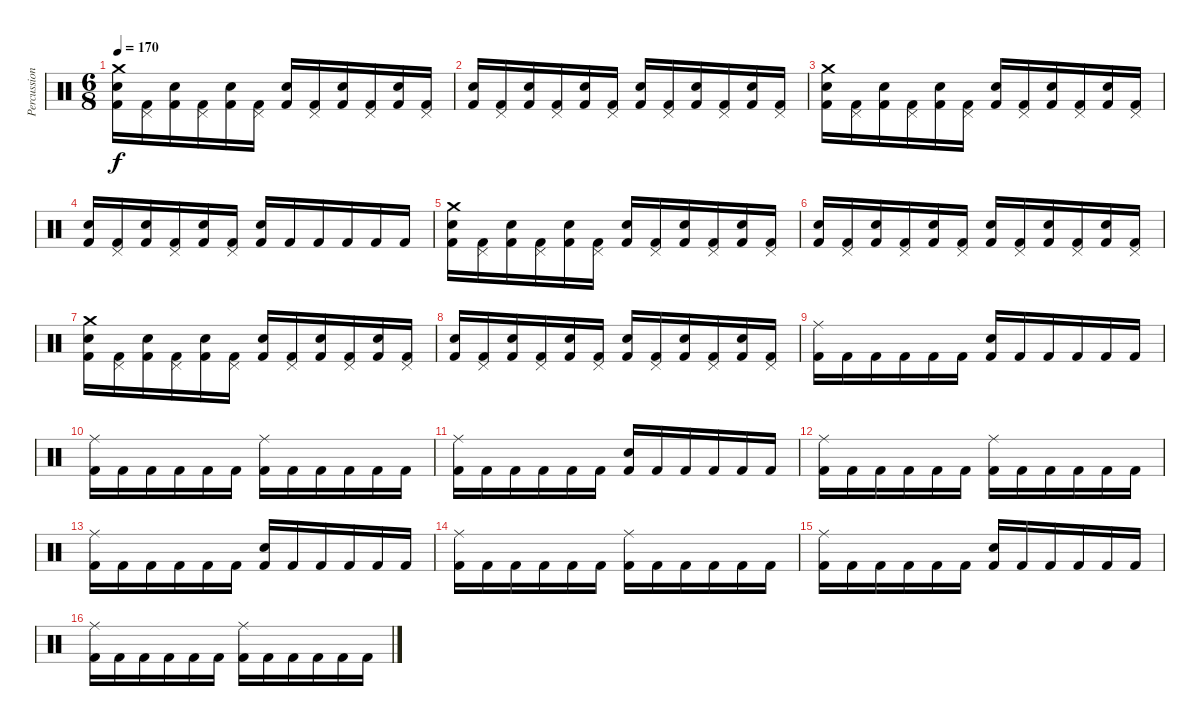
\track ("Percussions" "Percussion") {instrument percussion}
\staff {score}
\articulation defaults
\ts (6 8)
\tempo 170
\clef neutral
\ks c
("Crash medium (hit)" "Snare (hit) 2" "Kick (hit) 2").16{dy f} ("Pedal Hi-Hat (hit)" "Kick (hit) 2").16 ("Snare (hit) 2" "Kick (hit) 2").16 ("Pedal Hi-Hat (hit)" "Kick (hit) 2").16 ("Snare (hit) 2" "Kick (hit) 2").16 ("Pedal Hi-Hat (hit)" "Kick (hit) 2").16 ("Snare (hit) 2" "Kick (hit) 2").16 ("Pedal Hi-Hat (hit)" "Kick (hit) 2").16 ("Snare (hit) 2" "Kick (hit) 2").16 ("Pedal Hi-Hat (hit)" "Kick (hit) 2").16 ("Snare (hit) 2" "Kick (hit) 2").16 ("Pedal Hi-Hat (hit)" "Kick (hit) 2").16 |
("Snare (hit) 2" "Kick (hit) 2").16 ("Pedal Hi-Hat (hit)" "Kick (hit) 2").16 ("Snare (hit) 2" "Kick (hit) 2").16 ("Pedal Hi-Hat (hit)" "Kick (hit) 2").16 ("Snare (hit) 2" "Kick (hit) 2").16 ("Pedal Hi-Hat (hit)" "Kick (hit) 2").16 ("Snare (hit) 2" "Kick (hit) 2").16 ("Pedal Hi-Hat (hit)" "Kick (hit) 2").16 ("Snare (hit) 2" "Kick (hit) 2").16 ("Pedal Hi-Hat (hit)" "Kick (hit) 2").16 ("Snare (hit) 2" "Kick (hit) 2").16 ("Pedal Hi-Hat (hit)" "Kick (hit) 2").16 |
("Crash medium (hit)" "Snare (hit) 2" "Kick (hit) 2").16 ("Pedal Hi-Hat (hit)" "Kick (hit) 2").16 ("Snare (hit) 2" "Kick (hit) 2").16 ("Pedal Hi-Hat (hit)" "Kick (hit) 2").16 ("Snare (hit) 2" "Kick (hit) 2").16 ("Pedal Hi-Hat (hit)" "Kick (hit) 2").16 ("Snare (hit) 2" "Kick (hit) 2").16 ("Pedal Hi-Hat (hit)" "Kick (hit) 2").16 ("Snare (hit) 2" "Kick (hit) 2").16 ("Pedal Hi-Hat (hit)" "Kick (hit) 2").16 ("Snare (hit) 2" "Kick (hit) 2").16 ("Pedal Hi-Hat (hit)" "Kick (hit) 2").16 |
("Snare (hit) 2" "Kick (hit) 2").16 ("Pedal Hi-Hat (hit)" "Kick (hit) 2").16 ("Snare (hit) 2" "Kick (hit) 2").16 ("Pedal Hi-Hat (hit)" "Kick (hit) 2").16 ("Snare (hit) 2" "Kick (hit) 2").16 ("Pedal Hi-Hat (hit)" "Kick (hit) 2").16 ("Snare (hit) 2" "Kick (hit) 2").16 "Kick (hit) 2".16 "Kick (hit) 2".16 "Kick (hit) 2".16 "Kick (hit) 2".16 "Kick (hit) 2".16 |
("Crash medium (hit)" "Snare (hit) 2" "Kick (hit) 2").16 ("Pedal Hi-Hat (hit)" "Kick (hit) 2").16 ("Snare (hit) 2" "Kick (hit) 2").16 ("Pedal Hi-Hat (hit)" "Kick (hit) 2").16 ("Snare (hit) 2" "Kick (hit) 2").16 ("Pedal Hi-Hat (hit)" "Kick (hit) 2").16 ("Snare (hit) 2" "Kick (hit) 2").16 ("Pedal Hi-Hat (hit)" "Kick (hit) 2").16 ("Snare (hit) 2" "Kick (hit) 2").16 ("Pedal Hi-Hat (hit)" "Kick (hit) 2").16 ("Snare (hit) 2" "Kick (hit) 2").16 ("Pedal Hi-Hat (hit)" "Kick (hit) 2").16 |
("Snare (hit) 2" "Kick (hit) 2").16 ("Pedal Hi-Hat (hit)" "Kick (hit) 2").16 ("Snare (hit) 2" "Kick (hit) 2").16 ("Pedal Hi-Hat (hit)" "Kick (hit) 2").16 ("Snare (hit) 2" "Kick (hit) 2").16 ("Pedal Hi-Hat (hit)" "Kick (hit) 2").16 ("Snare (hit) 2" "Kick (hit) 2").16 ("Pedal Hi-Hat (hit)" "Kick (hit) 2").16 ("Snare (hit) 2" "Kick (hit) 2").16 ("Pedal Hi-Hat (hit)" "Kick (hit) 2").16 ("Snare (hit) 2" "Kick (hit) 2").16 ("Pedal Hi-Hat (hit)" "Kick (hit) 2").16 |
("Crash medium (hit)" "Snare (hit) 2" "Kick (hit) 2").16 ("Pedal Hi-Hat (hit)" "Kick (hit) 2").16 ("Snare (hit) 2" "Kick (hit) 2").16 ("Pedal Hi-Hat (hit)" "Kick (hit) 2").16 ("Snare (hit) 2" "Kick (hit) 2").16 ("Pedal Hi-Hat (hit)" "Kick (hit) 2").16 ("Snare (hit) 2" "Kick (hit) 2").16 ("Pedal Hi-Hat (hit)" "Kick (hit) 2").16 ("Snare (hit) 2" "Kick (hit) 2").16 ("Pedal Hi-Hat (hit)" "Kick (hit) 2").16 ("Snare (hit) 2" "Kick (hit) 2").16 ("Pedal Hi-Hat (hit)" "Kick (hit) 2").16 |
("Snare (hit) 2" "Kick (hit) 2").16 ("Pedal Hi-Hat (hit)" "Kick (hit) 2").16 ("Snare (hit) 2" "Kick (hit) 2").16 ("Pedal Hi-Hat (hit)" "Kick (hit) 2").16 ("Snare (hit) 2" "Kick (hit) 2").16 ("Pedal Hi-Hat (hit)" "Kick (hit) 2").16 ("Snare (hit) 2" "Kick (hit) 2").16 ("Pedal Hi-Hat (hit)" "Kick (hit) 2").16 ("Snare (hit) 2" "Kick (hit) 2").16 ("Pedal Hi-Hat (hit)" "Kick (hit) 2").16 ("Snare (hit) 2" "Kick (hit) 2").16 ("Pedal Hi-Hat (hit)" "Kick (hit) 2").16 |
("Ride (middle)" "Kick (hit) 2").16 "Kick (hit) 2".16 "Kick (hit) 2".16 "Kick (hit) 2".16 "Kick (hit) 2".16 "Kick (hit) 2".16 ("Snare (hit) 2" "Kick (hit) 2").16 "Kick (hit) 2".16 "Kick (hit) 2".16 "Kick (hit) 2".16 "Kick (hit) 2".16 "Kick (hit) 2".16 |
("Ride (middle)" "Kick (hit) 2").16 "Kick (hit) 2".16 "Kick (hit) 2".16 "Kick (hit) 2".16 "Kick (hit) 2".16 "Kick (hit) 2".16 ("Ride (middle)" "Kick (hit) 2").16 "Kick (hit) 2".16 "Kick (hit) 2".16 "Kick (hit) 2".16 "Kick (hit) 2".16 "Kick (hit) 2".16 |
("Ride (middle)" "Kick (hit) 2").16 "Kick (hit) 2".16 "Kick (hit) 2".16 "Kick (hit) 2".16 "Kick (hit) 2".16 "Kick (hit) 2".16 ("Snare (hit) 2" "Kick (hit) 2").16 "Kick (hit) 2".16 "Kick (hit) 2".16 "Kick (hit) 2".16 "Kick (hit) 2".16 "Kick (hit) 2".16 |
("Ride (middle)" "Kick (hit) 2").16 "Kick (hit) 2".16 "Kick (hit) 2".16 "Kick (hit) 2".16 "Kick (hit) 2".16 "Kick (hit) 2".16 ("Ride (middle)" "Kick (hit) 2").16 "Kick (hit) 2".16 "Kick (hit) 2".16 "Kick (hit) 2".16 "Kick (hit) 2".16 "Kick (hit) 2".16 |
("Ride (middle)" "Kick (hit) 2").16 "Kick (hit) 2".16 "Kick (hit) 2".16 "Kick (hit) 2".16 "Kick (hit) 2".16 "Kick (hit) 2".16 ("Snare (hit) 2" "Kick (hit) 2").16 "Kick (hit) 2".16 "Kick (hit) 2".16 "Kick (hit) 2".16 "Kick (hit) 2".16 "Kick (hit) 2".16 |
("Ride (middle)" "Kick (hit) 2").16 "Kick (hit) 2".16 "Kick (hit) 2".16 "Kick (hit) 2".16 "Kick (hit) 2".16 "Kick (hit) 2".16 ("Ride (middle)" "Kick (hit) 2").16 "Kick (hit) 2".16 "Kick (hit) 2".16 "Kick (hit) 2".16 "Kick (hit) 2".16 "Kick (hit) 2".16 |
("Ride (middle)" "Kick (hit) 2").16 "Kick (hit) 2".16 "Kick (hit) 2".16 "Kick (hit) 2".16 "Kick (hit) 2".16 "Kick (hit) 2".16 ("Snare (hit) 2" "Kick (hit) 2").16 "Kick (hit) 2".16 "Kick (hit) 2".16 "Kick (hit) 2".16 "Kick (hit) 2".16 "Kick (hit) 2".16 |
("Ride (middle)" "Kick (hit) 2").16 "Kick (hit) 2".16 "Kick (hit) 2".16 "Kick (hit) 2".16 "Kick (hit) 2".16 "Kick (hit) 2".16 ("Ride (middle)" "Kick (hit) 2").16 "Kick (hit) 2".16 "Kick (hit) 2".16 "Kick (hit) 2".16 "Kick (hit) 2".16 "Kick (hit) 2".16
